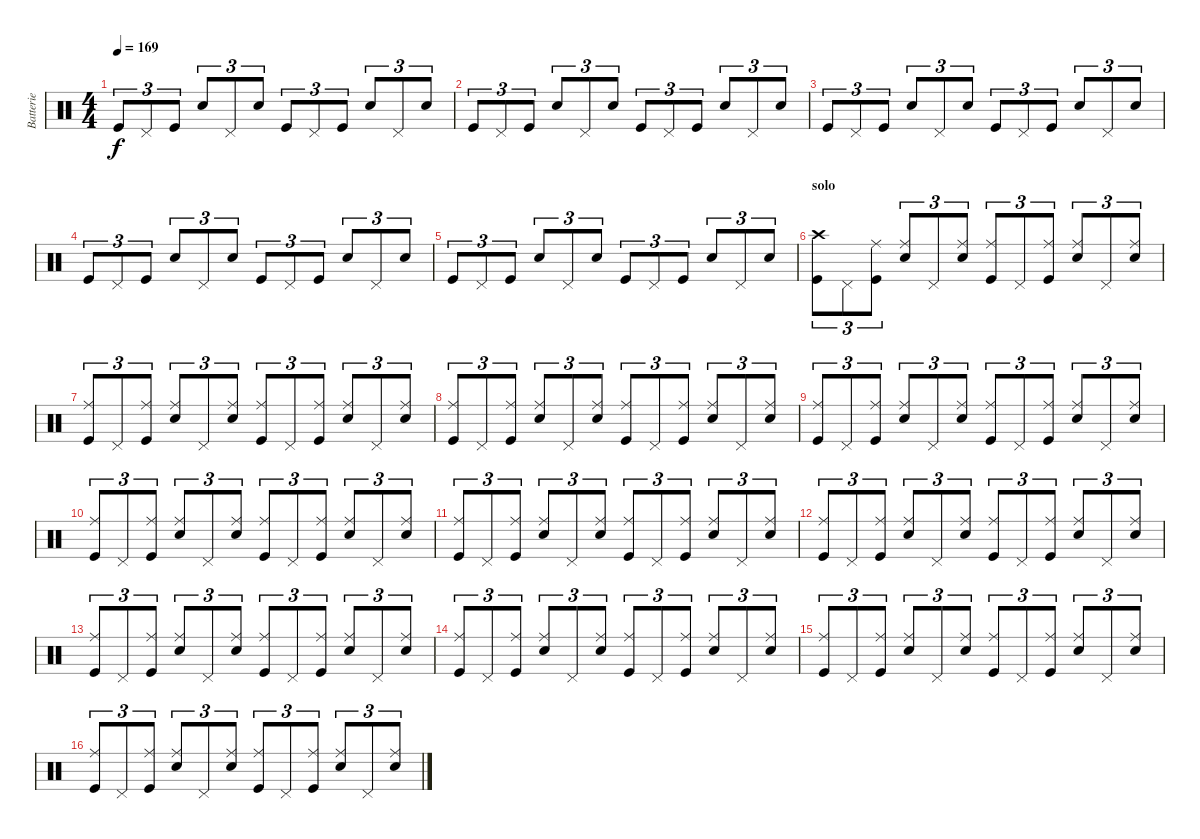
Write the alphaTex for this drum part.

\track ("Batterie" "Batterie") {instrument percussion}
\staff {score}
\articulation defaults
\ts (4 4)
\tempo 169
\clef neutral
\ks c "Kick (hit)".8{tu (3 2) dy f} "Pedal Hi-Hat (hit)".8{tu (3 2)} "Kick (hit)".8{tu (3 2)} "Snare (hit) 2".8{tu (3 2)} "Pedal Hi-Hat (hit)".8{tu (3 2)} "Snare (hit) 2".8{tu (3 2)} "Kick (hit)".8{tu (3 2)} "Pedal Hi-Hat (hit)".8{tu (3 2)} "Kick (hit)".8{tu (3 2)} "Snare (hit) 2".8{tu (3 2)} "Pedal Hi-Hat (hit)".8{tu (3 2)} "Snare (hit) 2".8{tu (3 2)}
|
"Kick (hit)".8{tu (3 2)} "Pedal Hi-Hat (hit)".8{tu (3 2)} "Kick (hit)".8{tu (3 2)} "Snare (hit) 2".8{tu (3 2)} "Pedal Hi-Hat (hit)".8{tu (3 2)} "Snare (hit) 2".8{tu (3 2)} "Kick (hit)".8{tu (3 2)} "Pedal Hi-Hat (hit)".8{tu (3 2)} "Kick (hit)".8{tu (3 2)} "Snare (hit) 2".8{tu (3 2)} "Pedal Hi-Hat (hit)".8{tu (3 2)} "Snare (hit) 2".8{tu (3 2)} |
"Kick (hit)".8{tu (3 2)} "Pedal Hi-Hat (hit)".8{tu (3 2)} "Kick (hit)".8{tu (3 2)} "Snare (hit) 2".8{tu (3 2)} "Pedal Hi-Hat (hit)".8{tu (3 2)} "Snare (hit) 2".8{tu (3 2)} "Kick (hit)".8{tu (3 2)} "Pedal Hi-Hat (hit)".8{tu (3 2)} "Kick (hit)".8{tu (3 2)} "Snare (hit) 2".8{tu (3 2)} "Pedal Hi-Hat (hit)".8{tu (3 2)} "Snare (hit) 2".8{tu (3 2)} |
"Kick (hit)".8{tu (3 2)} "Pedal Hi-Hat (hit)".8{tu (3 2)} "Kick (hit)".8{tu (3 2)} "Snare (hit) 2".8{tu (3 2)} "Pedal Hi-Hat (hit)".8{tu (3 2)} "Snare (hit) 2".8{tu (3 2)} "Kick (hit)".8{tu (3 2)} "Pedal Hi-Hat (hit)".8{tu (3 2)} "Kick (hit)".8{tu (3 2)} "Snare (hit) 2".8{tu (3 2)} "Pedal Hi-Hat (hit)".8{tu (3 2)} "Snare (hit) 2".8{tu (3 2)} |
"Kick (hit)".8{tu (3 2)} "Pedal Hi-Hat (hit)".8{tu (3 2)} "Kick (hit)".8{tu (3 2)} "Snare (hit) 2".8{tu (3 2)} "Pedal Hi-Hat (hit)".8{tu (3 2)} "Snare (hit) 2".8{tu (3 2)} "Kick (hit)".8{tu (3 2)} "Pedal Hi-Hat (hit)".8{tu (3 2)} "Kick (hit)".8{tu (3 2)} "Snare (hit) 2".8{tu (3 2)} "Pedal Hi-Hat (hit)".8{tu (3 2)} "Snare (hit) 2".8{tu (3 2)} |
\section ("" "solo")
("Crash high (hit)" "Kick (hit)").8{tu (3 2)} "Pedal Hi-Hat (hit)".8{tu (3 2)} ("Ride (middle)" "Kick (hit)").8{tu (3 2)} ("Ride (middle)" "Snare (hit) 2").8{tu (3 2)} "Pedal Hi-Hat (hit)".8{tu (3 2)} ("Ride (middle)" "Snare (hit) 2").8{tu (3 2)} ("Ride (middle)" "Kick (hit)").8{tu (3 2)} "Pedal Hi-Hat (hit)".8{tu (3 2)} ("Ride (middle)" "Kick (hit)").8{tu (3 2)} ("Ride (middle)" "Snare (hit) 2").8{tu (3 2)} "Pedal Hi-Hat (hit)".8{tu (3 2)} ("Ride (middle)" "Snare (hit) 2").8{tu (3 2)} |
("Ride (middle)" "Kick (hit)").8{tu (3 2)} "Pedal Hi-Hat (hit)".8{tu (3 2)} ("Ride (middle)" "Kick (hit)").8{tu (3 2)} ("Ride (middle)" "Snare (hit) 2").8{tu (3 2)} "Pedal Hi-Hat (hit)".8{tu (3 2)} ("Ride (middle)" "Snare (hit) 2").8{tu (3 2)} ("Ride (middle)" "Kick (hit)").8{tu (3 2)} "Pedal Hi-Hat (hit)".8{tu (3 2)} ("Ride (middle)" "Kick (hit)").8{tu (3 2)} ("Ride (middle)" "Snare (hit) 2").8{tu (3 2)} "Pedal Hi-Hat (hit)".8{tu (3 2)} ("Ride (middle)" "Snare (hit) 2").8{tu (3 2)} |
("Ride (middle)" "Kick (hit)").8{tu (3 2)} "Pedal Hi-Hat (hit)".8{tu (3 2)} ("Ride (middle)" "Kick (hit)").8{tu (3 2)} ("Ride (middle)" "Snare (hit) 2").8{tu (3 2)} "Pedal Hi-Hat (hit)".8{tu (3 2)} ("Ride (middle)" "Snare (hit) 2").8{tu (3 2)} ("Ride (middle)" "Kick (hit)").8{tu (3 2)} "Pedal Hi-Hat (hit)".8{tu (3 2)} ("Ride (middle)" "Kick (hit)").8{tu (3 2)} ("Ride (middle)" "Snare (hit) 2").8{tu (3 2)} "Pedal Hi-Hat (hit)".8{tu (3 2)} ("Ride (middle)" "Snare (hit) 2").8{tu (3 2)} |
("Ride (middle)" "Kick (hit)").8{tu (3 2)} "Pedal Hi-Hat (hit)".8{tu (3 2)} ("Ride (middle)" "Kick (hit)").8{tu (3 2)} ("Ride (middle)" "Snare (hit) 2").8{tu (3 2)} "Pedal Hi-Hat (hit)".8{tu (3 2)} ("Ride (middle)" "Snare (hit) 2").8{tu (3 2)} ("Ride (middle)" "Kick (hit)").8{tu (3 2)} "Pedal Hi-Hat (hit)".8{tu (3 2)} ("Ride (middle)" "Kick (hit)").8{tu (3 2)} ("Ride (middle)" "Snare (hit) 2").8{tu (3 2)} "Pedal Hi-Hat (hit)".8{tu (3 2)} ("Ride (middle)" "Snare (hit) 2").8{tu (3 2)} |
("Ride (middle)" "Kick (hit)").8{tu (3 2)} "Pedal Hi-Hat (hit)".8{tu (3 2)} ("Ride (middle)" "Kick (hit)").8{tu (3 2)} ("Ride (middle)" "Snare (hit) 2").8{tu (3 2)} "Pedal Hi-Hat (hit)".8{tu (3 2)} ("Ride (middle)" "Snare (hit) 2").8{tu (3 2)} ("Ride (middle)" "Kick (hit)").8{tu (3 2)} "Pedal Hi-Hat (hit)".8{tu (3 2)} ("Ride (middle)" "Kick (hit)").8{tu (3 2)} ("Ride (middle)" "Snare (hit) 2").8{tu (3 2)} "Pedal Hi-Hat (hit)".8{tu (3 2)} ("Ride (middle)" "Snare (hit) 2").8{tu (3 2)} |
("Ride (middle)" "Kick (hit)").8{tu (3 2)} "Pedal Hi-Hat (hit)".8{tu (3 2)} ("Ride (middle)" "Kick (hit)").8{tu (3 2)} ("Ride (middle)" "Snare (hit) 2").8{tu (3 2)} "Pedal Hi-Hat (hit)".8{tu (3 2)} ("Ride (middle)" "Snare (hit) 2").8{tu (3 2)} ("Ride (middle)" "Kick (hit)").8{tu (3 2)} "Pedal Hi-Hat (hit)".8{tu (3 2)} ("Ride (middle)" "Kick (hit)").8{tu (3 2)} ("Ride (middle)" "Snare (hit) 2").8{tu (3 2)} "Pedal Hi-Hat (hit)".8{tu (3 2)} ("Ride (middle)" "Snare (hit) 2").8{tu (3 2)} |
("Ride (middle)" "Kick (hit)").8{tu (3 2)} "Pedal Hi-Hat (hit)".8{tu (3 2)} ("Ride (middle)" "Kick (hit)").8{tu (3 2)} ("Ride (middle)" "Snare (hit) 2").8{tu (3 2)} "Pedal Hi-Hat (hit)".8{tu (3 2)} ("Ride (middle)" "Snare (hit) 2").8{tu (3 2)} ("Ride (middle)" "Kick (hit)").8{tu (3 2)} "Pedal Hi-Hat (hit)".8{tu (3 2)} ("Ride (middle)" "Kick (hit)").8{tu (3 2)} ("Ride (middle)" "Snare (hit) 2").8{tu (3 2)} "Pedal Hi-Hat (hit)".8{tu (3 2)} ("Ride (middle)" "Snare (hit) 2").8{tu (3 2)} |
("Ride (middle)" "Kick (hit)").8{tu (3 2)} "Pedal Hi-Hat (hit)".8{tu (3 2)} ("Ride (middle)" "Kick (hit)").8{tu (3 2)} ("Ride (middle)" "Snare (hit) 2").8{tu (3 2)} "Pedal Hi-Hat (hit)".8{tu (3 2)} ("Ride (middle)" "Snare (hit) 2").8{tu (3 2)} ("Ride (middle)" "Kick (hit)").8{tu (3 2)} "Pedal Hi-Hat (hit)".8{tu (3 2)} ("Ride (middle)" "Kick (hit)").8{tu (3 2)} ("Ride (middle)" "Snare (hit) 2").8{tu (3 2)} "Pedal Hi-Hat (hit)".8{tu (3 2)} ("Ride (middle)" "Snare (hit) 2").8{tu (3 2)} |
("Ride (middle)" "Kick (hit)").8{tu (3 2)} "Pedal Hi-Hat (hit)".8{tu (3 2)} ("Ride (middle)" "Kick (hit)").8{tu (3 2)} ("Ride (middle)" "Snare (hit) 2").8{tu (3 2)} "Pedal Hi-Hat (hit)".8{tu (3 2)} ("Ride (middle)" "Snare (hit) 2").8{tu (3 2)} ("Ride (middle)" "Kick (hit)").8{tu (3 2)} "Pedal Hi-Hat (hit)".8{tu (3 2)} ("Ride (middle)" "Kick (hit)").8{tu (3 2)} ("Ride (middle)" "Snare (hit) 2").8{tu (3 2)} "Pedal Hi-Hat (hit)".8{tu (3 2)} ("Ride (middle)" "Snare (hit) 2").8{tu (3 2)} |
("Ride (middle)" "Kick (hit)").8{tu (3 2)} "Pedal Hi-Hat (hit)".8{tu (3 2)} ("Ride (middle)" "Kick (hit)").8{tu (3 2)} ("Ride (middle)" "Snare (hit) 2").8{tu (3 2)} "Pedal Hi-Hat (hit)".8{tu (3 2)} ("Ride (middle)" "Snare (hit) 2").8{tu (3 2)} ("Ride (middle)" "Kick (hit)").8{tu (3 2)} "Pedal Hi-Hat (hit)".8{tu (3 2)} ("Ride (middle)" "Kick (hit)").8{tu (3 2)} ("Ride (middle)" "Snare (hit) 2").8{tu (3 2)} "Pedal Hi-Hat (hit)".8{tu (3 2)} ("Ride (middle)" "Snare (hit) 2").8{tu (3 2)} |
("Ride (middle)" "Kick (hit)").8{tu (3 2)} "Pedal Hi-Hat (hit)".8{tu (3 2)} ("Ride (middle)" "Kick (hit)").8{tu (3 2)} ("Ride (middle)" "Snare (hit) 2").8{tu (3 2)} "Pedal Hi-Hat (hit)".8{tu (3 2)} ("Ride (middle)" "Snare (hit) 2").8{tu (3 2)} ("Ride (middle)" "Kick (hit)").8{tu (3 2)} "Pedal Hi-Hat (hit)".8{tu (3 2)} ("Ride (middle)" "Kick (hit)").8{tu (3 2)} ("Ride (middle)" "Snare (hit) 2").8{tu (3 2)} "Pedal Hi-Hat (hit)".8{tu (3 2)} ("Ride (middle)" "Snare (hit) 2").8{tu (3 2)}
